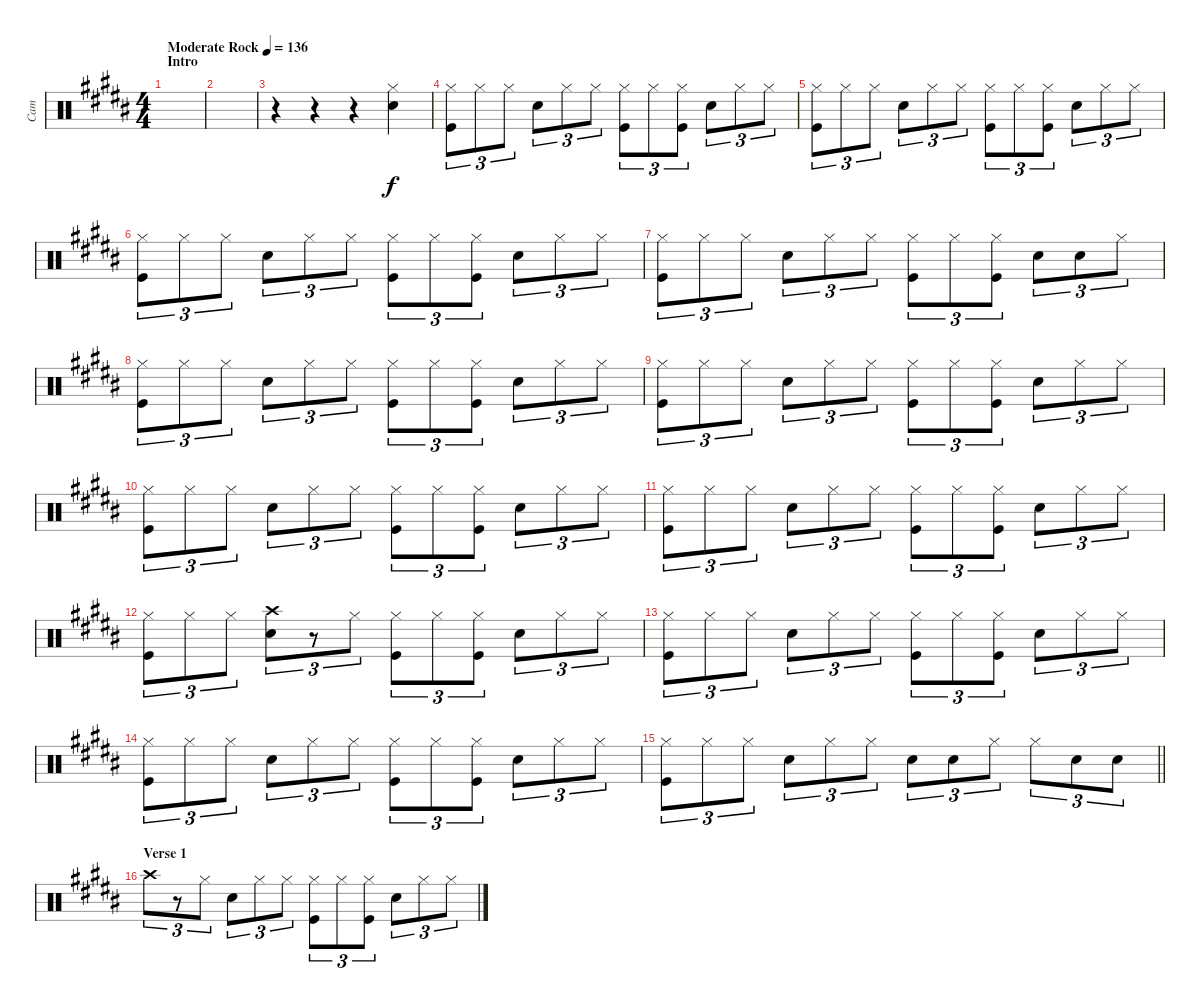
\track ("Cam" "Cam") {instrument percussion}
\staff {score}
\articulation defaults
\ts (4 4)
\section ("" "Intro")
\tempo (136 "Moderate Rock")
\clef neutral
\ks b
|
|
r.4 r.4 r.4 ("Snare (hit) 2" "Hi-Hat (closed)").4 |
("Hi-Hat (closed)" "Kick (hit)").8{tu (3 2)} "Hi-Hat (closed)".8{tu (3 2)} "Hi-Hat (closed)".8{tu (3 2)} "Snare (hit) 2".8{tu (3 2)} "Hi-Hat (closed)".8{tu (3 2)} "Hi-Hat (closed)".8{tu (3 2)} ("Hi-Hat (closed)" "Kick (hit)").8{tu (3 2)} "Hi-Hat (closed)".8{tu (3 2)} ("Hi-Hat (closed)" "Kick (hit)").8{tu (3 2)} "Snare (hit) 2".8{tu (3 2)} "Hi-Hat (closed)".8{tu (3 2)} "Hi-Hat (closed)".8{tu (3 2)} |
("Hi-Hat (closed)" "Kick (hit)").8{tu (3 2)} "Hi-Hat (closed)".8{tu (3 2)} "Hi-Hat (closed)".8{tu (3 2)} "Snare (hit) 2".8{tu (3 2)} "Hi-Hat (closed)".8{tu (3 2)} "Hi-Hat (closed)".8{tu (3 2)} ("Hi-Hat (closed)" "Kick (hit)").8{tu (3 2)} "Hi-Hat (closed)".8{tu (3 2)} ("Hi-Hat (closed)" "Kick (hit)").8{tu (3 2)} "Snare (hit) 2".8{tu (3 2)} "Hi-Hat (closed)".8{tu (3 2)} "Hi-Hat (closed)".8{tu (3 2)} |
("Hi-Hat (closed)" "Kick (hit)").8{tu (3 2)} "Hi-Hat (closed)".8{tu (3 2)} "Hi-Hat (closed)".8{tu (3 2)} "Snare (hit) 2".8{tu (3 2)} "Hi-Hat (closed)".8{tu (3 2)} "Hi-Hat (closed)".8{tu (3 2)} ("Hi-Hat (closed)" "Kick (hit)").8{tu (3 2)} "Hi-Hat (closed)".8{tu (3 2)} ("Hi-Hat (closed)" "Kick (hit)").8{tu (3 2)} "Snare (hit) 2".8{tu (3 2)} "Hi-Hat (closed)".8{tu (3 2)} "Hi-Hat (closed)".8{tu (3 2)} |
("Hi-Hat (closed)" "Kick (hit)").8{tu (3 2)} "Hi-Hat (closed)".8{tu (3 2)} "Hi-Hat (closed)".8{tu (3 2)} "Snare (hit) 2".8{tu (3 2)} "Hi-Hat (closed)".8{tu (3 2)} "Hi-Hat (closed)".8{tu (3 2)} ("Hi-Hat (closed)" "Kick (hit)").8{tu (3 2)} "Hi-Hat (closed)".8{tu (3 2)} ("Hi-Hat (closed)" "Kick (hit)").8{tu (3 2)} "Snare (hit) 2".8{tu (3 2)} "Snare (hit) 2".8{tu (3 2)} "Hi-Hat (closed)".8{tu (3 2)} |
("Hi-Hat (closed)" "Kick (hit)").8{tu (3 2)} "Hi-Hat (closed)".8{tu (3 2)} "Hi-Hat (closed)".8{tu (3 2)} "Snare (hit) 2".8{tu (3 2)} "Hi-Hat (closed)".8{tu (3 2)} "Hi-Hat (closed)".8{tu (3 2)} ("Hi-Hat (closed)" "Kick (hit)").8{tu (3 2)} "Hi-Hat (closed)".8{tu (3 2)} ("Hi-Hat (closed)" "Kick (hit)").8{tu (3 2)} "Snare (hit) 2".8{tu (3 2)} "Hi-Hat (closed)".8{tu (3 2)} "Hi-Hat (closed)".8{tu (3 2)} |
("Hi-Hat (closed)" "Kick (hit)").8{tu (3 2)} "Hi-Hat (closed)".8{tu (3 2)} "Hi-Hat (closed)".8{tu (3 2)} "Snare (hit) 2".8{tu (3 2)} "Hi-Hat (closed)".8{tu (3 2)} "Hi-Hat (closed)".8{tu (3 2)} ("Hi-Hat (closed)" "Kick (hit)").8{tu (3 2)} "Hi-Hat (closed)".8{tu (3 2)} ("Hi-Hat (closed)" "Kick (hit)").8{tu (3 2)} "Snare (hit) 2".8{tu (3 2)} "Hi-Hat (closed)".8{tu (3 2)} "Hi-Hat (closed)".8{tu (3 2)} |
("Hi-Hat (closed)" "Kick (hit)").8{tu (3 2)} "Hi-Hat (closed)".8{tu (3 2)} "Hi-Hat (closed)".8{tu (3 2)} "Snare (hit) 2".8{tu (3 2)} "Hi-Hat (closed)".8{tu (3 2)} "Hi-Hat (closed)".8{tu (3 2)} ("Hi-Hat (closed)" "Kick (hit)").8{tu (3 2)} "Hi-Hat (closed)".8{tu (3 2)} ("Hi-Hat (closed)" "Kick (hit)").8{tu (3 2)} "Snare (hit) 2".8{tu (3 2)} "Hi-Hat (closed)".8{tu (3 2)} "Hi-Hat (closed)".8{tu (3 2)} |
("Hi-Hat (closed)" "Kick (hit)").8{tu (3 2)} "Hi-Hat (closed)".8{tu (3 2)} "Hi-Hat (closed)".8{tu (3 2)} "Snare (hit) 2".8{tu (3 2)} "Hi-Hat (closed)".8{tu (3 2)} "Hi-Hat (closed)".8{tu (3 2)} ("Hi-Hat (closed)" "Kick (hit)").8{tu (3 2)} "Hi-Hat (closed)".8{tu (3 2)} ("Hi-Hat (closed)" "Kick (hit)").8{tu (3 2)} "Snare (hit) 2".8{tu (3 2)} "Hi-Hat (closed)".8{tu (3 2)} "Hi-Hat (closed)".8{tu (3 2)} |
("Hi-Hat (closed)" "Kick (hit)").8{tu (3 2)} "Hi-Hat (closed)".8{tu (3 2)} "Hi-Hat (closed)".8{tu (3 2)} ("Crash high (hit)" "Snare (hit) 2").8{tu (3 2)} r.8{tu (3 2)} "Hi-Hat (closed)".8{tu (3 2)} ("Hi-Hat (closed)" "Kick (hit)").8{tu (3 2)} "Hi-Hat (closed)".8{tu (3 2)} ("Hi-Hat (closed)" "Kick (hit)").8{tu (3 2)} "Snare (hit) 2".8{tu (3 2)} "Hi-Hat (closed)".8{tu (3 2)} "Hi-Hat (closed)".8{tu (3 2)} |
("Hi-Hat (closed)" "Kick (hit)").8{tu (3 2)} "Hi-Hat (closed)".8{tu (3 2)} "Hi-Hat (closed)".8{tu (3 2)} "Snare (hit) 2".8{tu (3 2)} "Hi-Hat (closed)".8{tu (3 2)} "Hi-Hat (closed)".8{tu (3 2)} ("Hi-Hat (closed)" "Kick (hit)").8{tu (3 2)} "Hi-Hat (closed)".8{tu (3 2)} ("Hi-Hat (closed)" "Kick (hit)").8{tu (3 2)} "Snare (hit) 2".8{tu (3 2)} "Hi-Hat (closed)".8{tu (3 2)} "Hi-Hat (closed)".8{tu (3 2)} |
("Hi-Hat (closed)" "Kick (hit)").8{tu (3 2)} "Hi-Hat (closed)".8{tu (3 2)} "Hi-Hat (closed)".8{tu (3 2)} "Snare (hit) 2".8{tu (3 2)} "Hi-Hat (closed)".8{tu (3 2)} "Hi-Hat (closed)".8{tu (3 2)} ("Hi-Hat (closed)" "Kick (hit)").8{tu (3 2)} "Hi-Hat (closed)".8{tu (3 2)} ("Hi-Hat (closed)" "Kick (hit)").8{tu (3 2)} "Snare (hit) 2".8{tu (3 2)} "Hi-Hat (closed)".8{tu (3 2)} "Hi-Hat (closed)".8{tu (3 2)} |
\barLineRight lightlight
("Hi-Hat (closed)" "Kick (hit)").8{tu (3 2)} "Hi-Hat (closed)".8{tu (3 2)} "Hi-Hat (closed)".8{tu (3 2)} "Snare (hit) 2".8{tu (3 2)} "Hi-Hat (closed)".8{tu (3 2)} "Hi-Hat (closed)".8{tu (3 2)} "Snare (hit) 2".8{tu (3 2)} "Snare (hit) 2".8{tu (3 2)} "Hi-Hat (closed)".8{tu (3 2)} "Hi-Hat (closed)".8{tu (3 2)} "Snare (hit) 2".8{tu (3 2)} "Snare (hit) 2".8{tu (3 2)} |
\section ("" "Verse 1")
"Crash high (hit)".8{tu (3 2)} r.8{tu (3 2)} "Hi-Hat (closed)".8{tu (3 2)} "Snare (hit) 2".8{tu (3 2)} "Hi-Hat (closed)".8{tu (3 2)} "Hi-Hat (closed)".8{tu (3 2)} ("Hi-Hat (closed)" "Kick (hit)").8{tu (3 2)} "Hi-Hat (closed)".8{tu (3 2)} ("Hi-Hat (closed)" "Kick (hit)").8{tu (3 2)} "Snare (hit) 2".8{tu (3 2)} "Hi-Hat (closed)".8{tu (3 2)} "Hi-Hat (closed)".8{tu (3 2)}
